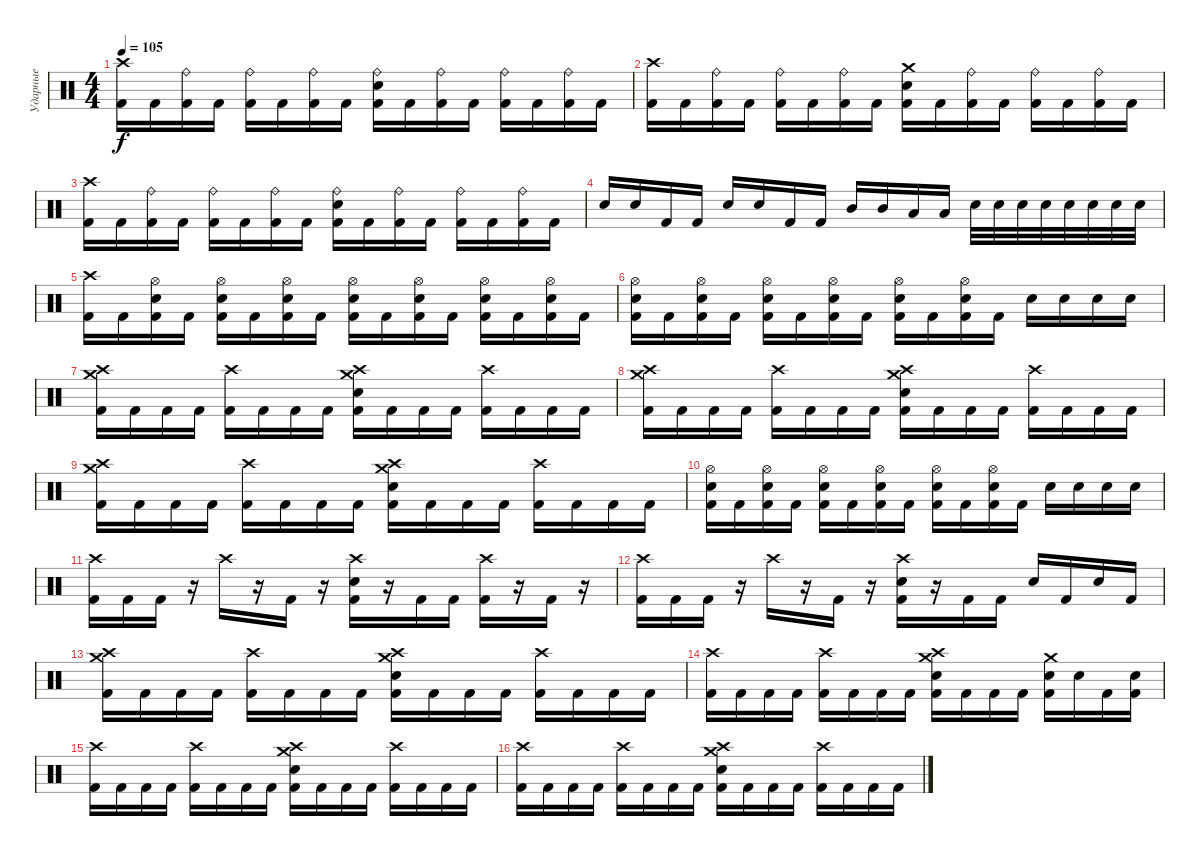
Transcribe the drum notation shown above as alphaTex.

\track ("Ударные" "Ударные") {instrument percussion}
\staff
\articulation defaults
\ts (4 4)
\tempo 105
\clef neutral
\ks c
("Crash high (hit)" "Kick (hit) 2").16{dy f} "Kick (hit) 2".16 ("Ride (bell)" "Kick (hit) 2").16 "Kick (hit) 2".16 ("Ride (bell)" "Kick (hit) 2").16 "Kick (hit) 2".16 ("Ride (bell)" "Kick (hit) 2").16 "Kick (hit) 2".16 ("Ride (bell)" "Electric Snare (hit)" "Kick (hit) 2").16 "Kick (hit) 2".16 ("Ride (bell)" "Kick (hit) 2").16 "Kick (hit) 2".16 ("Ride (bell)" "Kick (hit) 2").16 "Kick (hit) 2".16 ("Ride (bell)" "Kick (hit) 2").16 "Kick (hit) 2".16 |
("Crash high (hit)" "Kick (hit) 2").16 "Kick (hit) 2".16 ("Ride (bell)" "Kick (hit) 2").16 "Kick (hit) 2".16 ("Ride (bell)" "Kick (hit) 2").16 "Kick (hit) 2".16 ("Ride (bell)" "Kick (hit) 2").16 "Kick (hit) 2".16 ("Crash medium (hit)" "Electric Snare (hit)" "Kick (hit) 2").16 "Kick (hit) 2".16 ("Ride (bell)" "Kick (hit) 2").16 "Kick (hit) 2".16 ("Ride (bell)" "Kick (hit) 2").16 "Kick (hit) 2".16 ("Ride (bell)" "Kick (hit) 2").16 "Kick (hit) 2".16 |
("Crash high (hit)" "Kick (hit) 2").16 "Kick (hit) 2".16 ("Ride (bell)" "Kick (hit) 2").16 "Kick (hit) 2".16 ("Ride (bell)" "Kick (hit) 2").16 "Kick (hit) 2".16 ("Ride (bell)" "Kick (hit) 2").16 "Kick (hit) 2".16 ("Ride (bell)" "Electric Snare (hit)" "Kick (hit) 2").16 "Kick (hit) 2".16 ("Ride (bell)" "Kick (hit) 2").16 "Kick (hit) 2".16 ("Ride (bell)" "Kick (hit) 2").16 "Kick (hit) 2".16 ("Ride (bell)" "Kick (hit) 2").16 "Kick (hit) 2".16 |
"Electric Snare (hit)".16 "Electric Snare (hit)".16 "Kick (hit) 2".16 "Kick (hit) 2".16 "Electric Snare (hit)".16 "Electric Snare (hit)".16 "Kick (hit) 2".16 "Kick (hit) 2".16 "Mid Tom (hit)".16 "Mid Tom (hit)".16 "Low Tom (hit)".16 "Low Tom (hit)".16 "Electric Snare (hit)".32 "Electric Snare (hit)".32 "Electric Snare (hit)".32 "Electric Snare (hit)".32 "Electric Snare (hit)".32 "Electric Snare (hit)".32 "Electric Snare (hit)".32 "Electric Snare (hit)".32 |
("Crash high (hit)" "Kick (hit) 2").16 "Kick (hit) 2".16 ("Hi-Hat (open)" "Electric Snare (hit)" "Kick (hit) 2").16 "Kick (hit) 2".16 ("Hi-Hat (open)" "Electric Snare (hit)" "Kick (hit) 2").16 "Kick (hit) 2".16 ("Hi-Hat (open)" "Electric Snare (hit)" "Kick (hit) 2").16 "Kick (hit) 2".16 ("Hi-Hat (open)" "Electric Snare (hit)" "Kick (hit) 2").16 "Kick (hit) 2".16 ("Hi-Hat (open)" "Electric Snare (hit)" "Kick (hit) 2").16 "Kick (hit) 2".16 ("Hi-Hat (open)" "Electric Snare (hit)" "Kick (hit) 2").16 "Kick (hit) 2".16 ("Hi-Hat (open)" "Electric Snare (hit)" "Kick (hit) 2").16 "Kick (hit) 2".16 |
("Hi-Hat (open)" "Electric Snare (hit)" "Kick (hit) 2").16 "Kick (hit) 2".16 ("Hi-Hat (open)" "Electric Snare (hit)" "Kick (hit) 2").16 "Kick (hit) 2".16 ("Hi-Hat (open)" "Electric Snare (hit)" "Kick (hit) 2").16 "Kick (hit) 2".16 ("Hi-Hat (open)" "Electric Snare (hit)" "Kick (hit) 2").16 "Kick (hit) 2".16 ("Hi-Hat (open)" "Electric Snare (hit)" "Kick (hit) 2").16 "Kick (hit) 2".16 ("Hi-Hat (open)" "Electric Snare (hit)" "Kick (hit) 2").16 "Kick (hit) 2".16 "Electric Snare (hit)".16 "Electric Snare (hit)".16 "Electric Snare (hit)".16 "Electric Snare (hit)".16 |
("Crash medium (hit)" "Crash high (hit)" "Kick (hit) 2").16 "Kick (hit) 2".16 "Kick (hit) 2".16 "Kick (hit) 2".16 ("Crash high (hit)" "Kick (hit) 2").16 "Kick (hit) 2".16 "Kick (hit) 2".16 "Kick (hit) 2".16 ("Crash medium (hit)" "Crash high (hit)" "Electric Snare (hit)" "Kick (hit) 2").16 "Kick (hit) 2".16 "Kick (hit) 2".16 "Kick (hit) 2".16 ("Crash high (hit)" "Kick (hit) 2").16 "Kick (hit) 2".16 "Kick (hit) 2".16 "Kick (hit) 2".16 |
("Crash medium (hit)" "Crash high (hit)" "Kick (hit) 2").16 "Kick (hit) 2".16 "Kick (hit) 2".16 "Kick (hit) 2".16 ("Crash high (hit)" "Kick (hit) 2").16 "Kick (hit) 2".16 "Kick (hit) 2".16 "Kick (hit) 2".16 ("Crash medium (hit)" "Crash high (hit)" "Electric Snare (hit)" "Kick (hit) 2").16 "Kick (hit) 2".16 "Kick (hit) 2".16 "Kick (hit) 2".16 ("Crash high (hit)" "Kick (hit) 2").16 "Kick (hit) 2".16 "Kick (hit) 2".16 "Kick (hit) 2".16 |
("Crash medium (hit)" "Crash high (hit)" "Kick (hit) 2").16 "Kick (hit) 2".16 "Kick (hit) 2".16 "Kick (hit) 2".16 ("Crash high (hit)" "Kick (hit) 2").16 "Kick (hit) 2".16 "Kick (hit) 2".16 "Kick (hit) 2".16 ("Crash medium (hit)" "Crash high (hit)" "Electric Snare (hit)" "Kick (hit) 2").16 "Kick (hit) 2".16 "Kick (hit) 2".16 "Kick (hit) 2".16 ("Crash high (hit)" "Kick (hit) 2").16 "Kick (hit) 2".16 "Kick (hit) 2".16 "Kick (hit) 2".16 |
("Hi-Hat (open)" "Electric Snare (hit)" "Kick (hit) 2").16 "Kick (hit) 2".16 ("Hi-Hat (open)" "Electric Snare (hit)" "Kick (hit) 2").16 "Kick (hit) 2".16 ("Hi-Hat (open)" "Electric Snare (hit)" "Kick (hit) 2").16 "Kick (hit) 2".16 ("Hi-Hat (open)" "Electric Snare (hit)" "Kick (hit) 2").16 "Kick (hit) 2".16 ("Hi-Hat (open)" "Electric Snare (hit)" "Kick (hit) 2").16 "Kick (hit) 2".16 ("Hi-Hat (open)" "Electric Snare (hit)" "Kick (hit) 2").16 "Kick (hit) 2".16 "Electric Snare (hit)".16 "Electric Snare (hit)".16 "Electric Snare (hit)".16 "Electric Snare (hit)".16 |
("Crash high (hit)" "Kick (hit) 2").16 "Kick (hit) 2".16 "Kick (hit) 2".16 r.16 "Crash high (hit)".16 r.16 "Kick (hit) 2".16 r.16 ("Crash high (hit)" "Electric Snare (hit)" "Kick (hit) 2").16 r.16 "Kick (hit) 2".16 "Kick (hit) 2".16 ("Crash high (hit)" "Kick (hit) 2").16 r.16 "Kick (hit) 2".16 r.16 |
("Crash high (hit)" "Kick (hit) 2").16 "Kick (hit) 2".16 "Kick (hit) 2".16 r.16 "Crash high (hit)".16 r.16 "Kick (hit) 2".16 r.16 ("Crash high (hit)" "Electric Snare (hit)" "Kick (hit) 2").16 r.16 "Kick (hit) 2".16 "Kick (hit) 2".16 "Electric Snare (hit)".16 "Kick (hit) 2".16 "Electric Snare (hit)".16 "Kick (hit) 2".16 |
("Crash high (hit)" "Crash medium (hit)" "Kick (hit) 2").16 "Kick (hit) 2".16 "Kick (hit) 2".16 "Kick (hit) 2".16 ("Crash high (hit)" "Kick (hit) 2").16 "Kick (hit) 2".16 "Kick (hit) 2".16 "Kick (hit) 2".16 ("Crash high (hit)" "Crash medium (hit)" "Electric Snare (hit)" "Kick (hit) 2").16 "Kick (hit) 2".16 "Kick (hit) 2".16 "Kick (hit) 2".16 ("Crash high (hit)" "Kick (hit) 2").16 "Kick (hit) 2".16 "Kick (hit) 2".16 "Kick (hit) 2".16 |
("Crash high (hit)" "Kick (hit) 2").16 "Kick (hit) 2".16 "Kick (hit) 2".16 "Kick (hit) 2".16 ("Crash high (hit)" "Kick (hit) 2").16 "Kick (hit) 2".16 "Kick (hit) 2".16 "Kick (hit) 2".16 ("Crash high (hit)" "Crash medium (hit)" "Electric Snare (hit)" "Kick (hit) 2").16 "Kick (hit) 2".16 "Kick (hit) 2".16 "Kick (hit) 2".16 ("Crash medium (hit)" "Electric Snare (hit)" "Kick (hit) 2").16 "Electric Snare (hit)".16 "Kick (hit) 2".16 ("Electric Snare (hit)" "Kick (hit) 2").16 |
("Crash high (hit)" "Kick (hit) 2").16 "Kick (hit) 2".16 "Kick (hit) 2".16 "Kick (hit) 2".16 ("Crash high (hit)" "Kick (hit) 2").16 "Kick (hit) 2".16 "Kick (hit) 2".16 "Kick (hit) 2".16 ("Crash high (hit)" "Crash medium (hit)" "Electric Snare (hit)" "Kick (hit) 2").16 "Kick (hit) 2".16 "Kick (hit) 2".16 "Kick (hit) 2".16 ("Crash high (hit)" "Kick (hit) 2").16 "Kick (hit) 2".16 "Kick (hit) 2".16 "Kick (hit) 2".16 |
("Crash high (hit)" "Kick (hit) 2").16 "Kick (hit) 2".16 "Kick (hit) 2".16 "Kick (hit) 2".16 ("Crash high (hit)" "Kick (hit) 2").16 "Kick (hit) 2".16 "Kick (hit) 2".16 "Kick (hit) 2".16 ("Crash high (hit)" "Crash medium (hit)" "Electric Snare (hit)" "Kick (hit) 2").16 "Kick (hit) 2".16 "Kick (hit) 2".16 "Kick (hit) 2".16 ("Crash high (hit)" "Kick (hit) 2").16 "Kick (hit) 2".16 "Kick (hit) 2".16 "Kick (hit) 2".16
